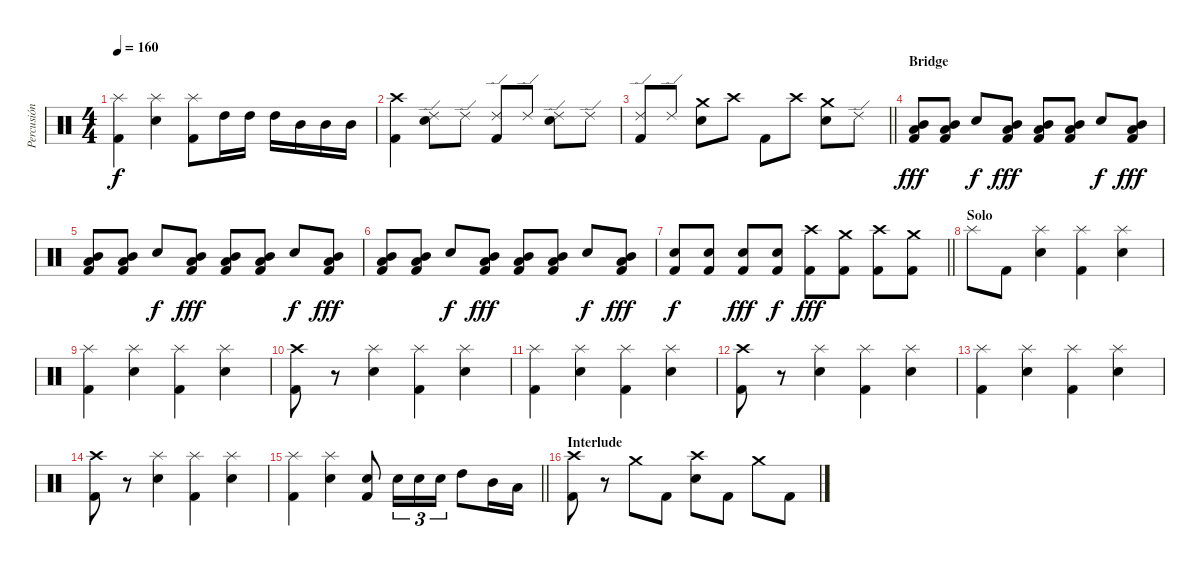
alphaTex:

\track ("Percusión" "Percusión") {instrument percussion}
\staff {score}
\articulation defaults
\ts (4 4)
\tempo 160
\clef neutral
\ks c
("Splash (hit)" "Kick (hit) 2").4{dy f} ("Splash (hit)" "Electric Snare (hit)").4 ("Splash (hit)" "Kick (hit) 2").8 "High Tom (hit)".16 "High Tom (hit)".16 "High Tom (hit)".16 "Mid Tom (hit)".16 "Mid Tom (hit)".16 "Mid Tom (hit)".16 |
("Crash high (hit)" "Kick (hit) 2").4 ("Ride (edge) 2" "Electric Snare (hit)").8 "Ride (edge) 2".8 ("Ride (edge) 2" "Kick (hit) 2").8 "Ride (edge) 2".8 ("Ride (edge) 2" "Electric Snare (hit)").8 "Ride (edge) 2".8 |
\barLineRight lightlight
("Ride (edge) 2" "Kick (hit) 2").8 "Ride (edge) 2".8 ("Crash medium (hit)" "Electric Snare (hit)").8 "Crash high (hit)".8 "Kick (hit) 2".8 "Crash high (hit)".8 ("Crash medium (hit)" "Electric Snare (hit)").8 "Ride (edge) 2".8 |
\section ("" "Bridge")
("Mid Tom (hit)" "Low Floor Tom (hit)" "Kick (hit) 2").8{dy fff} ("Mid Tom (hit)" "Low Floor Tom (hit)" "Kick (hit) 2").8 "Electric Snare (hit)".8{dy f} ("Mid Tom (hit)" "Low Floor Tom (hit)" "Kick (hit) 2").8{dy fff} ("Mid Tom (hit)" "Low Floor Tom (hit)" "Kick (hit) 2").8 ("Mid Tom (hit)" "Low Floor Tom (hit)" "Kick (hit) 2").8 "Electric Snare (hit)".8{dy f} ("Mid Tom (hit)" "Low Floor Tom (hit)" "Kick (hit) 2").8{dy fff} |
("Mid Tom (hit)" "Low Floor Tom (hit)" "Kick (hit) 2").8 ("Mid Tom (hit)" "Low Floor Tom (hit)" "Kick (hit) 2").8 "Electric Snare (hit)".8{dy f} ("Mid Tom (hit)" "Low Floor Tom (hit)" "Kick (hit) 2").8{dy fff} ("Mid Tom (hit)" "Low Floor Tom (hit)" "Kick (hit) 2").8 ("Mid Tom (hit)" "Low Floor Tom (hit)" "Kick (hit) 2").8 "Electric Snare (hit)".8{dy f} ("Mid Tom (hit)" "Low Floor Tom (hit)" "Kick (hit) 2").8{dy fff} |
("Mid Tom (hit)" "Low Floor Tom (hit)" "Kick (hit) 2").8 ("Mid Tom (hit)" "Low Floor Tom (hit)" "Kick (hit) 2").8 "Electric Snare (hit)".8{dy f} ("Mid Tom (hit)" "Low Floor Tom (hit)" "Kick (hit) 2").8{dy fff} ("Mid Tom (hit)" "Low Floor Tom (hit)" "Kick (hit) 2").8 ("Mid Tom (hit)" "Low Floor Tom (hit)" "Kick (hit) 2").8 "Electric Snare (hit)".8{dy f} ("Mid Tom (hit)" "Low Floor Tom (hit)" "Kick (hit) 2").8{dy fff} |
\barLineRight lightlight
("Electric Snare (hit)" "Kick (hit) 2").8{dy f} ("Electric Snare (hit)" "Kick (hit) 2").8 ("Electric Snare (hit)" "Kick (hit) 2").8{dy fff} ("Electric Snare (hit)" "Kick (hit) 2").8{dy f} ("Crash high (hit)" "Kick (hit) 2").8{dy fff} ("Crash medium (hit)" "Kick (hit) 2").8 ("Crash high (hit)" "Kick (hit) 2").8 ("Crash medium (hit)" "Kick (hit) 2").8 |
\section ("" "Solo")
"Splash (hit)".8 "Kick (hit) 2".8 ("Splash (hit)" "Electric Snare (hit)").4 ("Splash (hit)" "Kick (hit) 2").4 ("Splash (hit)" "Electric Snare (hit)").4 |
("Splash (hit)" "Kick (hit) 2").4 ("Splash (hit)" "Electric Snare (hit)").4 ("Splash (hit)" "Kick (hit) 2").4 ("Splash (hit)" "Electric Snare (hit)").4 |
("Crash high (hit)" "Kick (hit) 2").8 r.8 ("Splash (hit)" "Electric Snare (hit)").4 ("Splash (hit)" "Kick (hit) 2").4 ("Splash (hit)" "Electric Snare (hit)").4 |
("Splash (hit)" "Kick (hit) 2").4 ("Splash (hit)" "Electric Snare (hit)").4 ("Splash (hit)" "Kick (hit) 2").4 ("Splash (hit)" "Electric Snare (hit)").4 |
("Crash high (hit)" "Kick (hit) 2").8 r.8 ("Splash (hit)" "Electric Snare (hit)").4 ("Splash (hit)" "Kick (hit) 2").4 ("Splash (hit)" "Electric Snare (hit)").4 |
("Splash (hit)" "Kick (hit) 2").4 ("Splash (hit)" "Electric Snare (hit)").4 ("Splash (hit)" "Kick (hit) 2").4 ("Splash (hit)" "Electric Snare (hit)").4 |
("Crash high (hit)" "Kick (hit) 2").8 r.8 ("Splash (hit)" "Electric Snare (hit)").4 ("Splash (hit)" "Kick (hit) 2").4 ("Splash (hit)" "Electric Snare (hit)").4 |
\barLineRight lightlight
("Splash (hit)" "Kick (hit) 2").4 ("Splash (hit)" "Electric Snare (hit)").4 ("Electric Snare (hit)" "Kick (hit) 2").8 "Electric Snare (hit)".16{tu (3 2)} "Electric Snare (hit)".16{tu (3 2)} "Electric Snare (hit)".16{tu (3 2)} "High Tom (hit)".8 "Mid Tom (hit)".16 "Low Tom (hit)".16 |
\section ("" "Interlude")
("Crash high (hit)" "Kick (hit) 2").8 r.8 "Crash medium (hit)".8 "Kick (hit) 2".8 ("Crash high (hit)" "Electric Snare (hit)").8 "Kick (hit) 2".8 "Crash medium (hit)".8 "Kick (hit) 2".8
